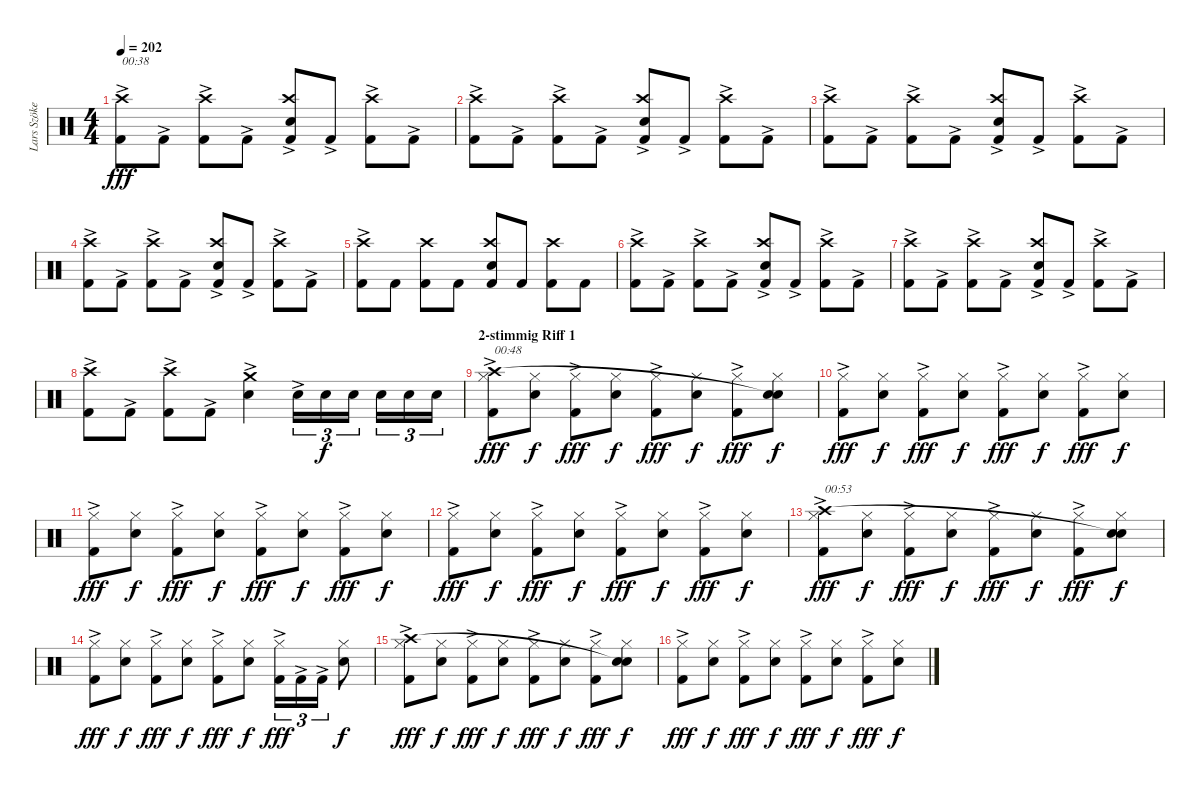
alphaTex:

\track ("Lars Szöke" "Lars Szöke") {instrument percussion}
\staff {score}
\articulation defaults
\ts (4 4)
\tempo 202
\clef neutral
\ks c
("Kick (hit) 2"{ac} "Crash high (hit)"{ac}).8{txt "00:38" dy fff} "Kick (hit) 2"{ac}.8 ("Kick (hit) 2"{ac} "Crash high (hit)").8 "Kick (hit) 2"{ac}.8 ("Kick (hit) 2"{ac} "Snare (hit) 2" "Crash high (hit)").8 "Kick (hit) 2"{ac}.8 ("Kick (hit) 2"{ac} "Crash high (hit)").8 "Kick (hit) 2"{ac}.8 |
("Kick (hit) 2"{ac} "Crash high (hit)").8 "Kick (hit) 2"{ac}.8 ("Kick (hit) 2"{ac} "Crash high (hit)").8 "Kick (hit) 2"{ac}.8 ("Kick (hit) 2"{ac} "Snare (hit) 2" "Crash high (hit)").8 "Kick (hit) 2"{ac}.8 ("Kick (hit) 2"{ac} "Crash high (hit)").8 "Kick (hit) 2"{ac}.8 |
("Kick (hit) 2"{ac} "Crash high (hit)").8 "Kick (hit) 2"{ac}.8 ("Kick (hit) 2"{ac} "Crash high (hit)").8 "Kick (hit) 2"{ac}.8 ("Kick (hit) 2"{ac} "Snare (hit) 2" "Crash high (hit)").8 "Kick (hit) 2"{ac}.8 ("Kick (hit) 2"{ac} "Crash high (hit)").8 "Kick (hit) 2"{ac}.8 |
("Kick (hit) 2"{ac} "Crash high (hit)").8 "Kick (hit) 2"{ac}.8 ("Kick (hit) 2"{ac} "Crash high (hit)").8 "Kick (hit) 2"{ac}.8 ("Kick (hit) 2"{ac} "Snare (hit) 2" "Crash high (hit)").8 "Kick (hit) 2"{ac}.8 ("Kick (hit) 2"{ac} "Crash high (hit)").8 "Kick (hit) 2"{ac}.8 |
("Kick (hit) 2" "Crash high (hit)"{ac}).8 "Kick (hit) 2".8 ("Kick (hit) 2" "Crash high (hit)").8 "Kick (hit) 2".8 ("Kick (hit) 2" "Snare (hit) 2" "Crash high (hit)").8 "Kick (hit) 2".8 ("Kick (hit) 2" "Crash high (hit)").8 "Kick (hit) 2".8 |
("Kick (hit) 2"{ac} "Crash high (hit)").8 "Kick (hit) 2"{ac}.8 ("Kick (hit) 2"{ac} "Crash high (hit)").8 "Kick (hit) 2"{ac}.8 ("Kick (hit) 2"{ac} "Snare (hit) 2" "Crash high (hit)").8 "Kick (hit) 2"{ac}.8 ("Kick (hit) 2"{ac} "Crash high (hit)").8 "Kick (hit) 2"{ac}.8 |
("Kick (hit) 2"{ac} "Crash high (hit)").8 "Kick (hit) 2"{ac}.8 ("Kick (hit) 2"{ac} "Crash high (hit)").8 "Kick (hit) 2"{ac}.8 ("Kick (hit) 2"{ac} "Snare (hit) 2" "Crash high (hit)").8 "Kick (hit) 2"{ac}.8 ("Kick (hit) 2"{ac} "Crash high (hit)").8 "Kick (hit) 2"{ac}.8 |
("Kick (hit) 2"{ac} "Crash high (hit)").8 "Kick (hit) 2"{ac}.8 ("Kick (hit) 2"{ac} "Crash high (hit)").8 "Kick (hit) 2"{ac}.8 ("Snare (hit) 2" "Crash medium (hit)"{ac}).4 "Snare (hit) 2"{ac}.16{tu (3 2)} "Snare (hit) 2".16{tu (3 2) dy f} "Snare (hit) 2".16{tu (3 2)} "Snare (hit) 2".16{tu (3 2)} "Snare (hit) 2".16{tu (3 2)} "Snare (hit) 2".16{tu (3 2)} |
\section ("" "2-stimmig Riff 1")
("Kick (hit) 2"{ac} "Hi-Hat (closed)" "Crash high (hit)"{ac}).8{txt "00:48" dy fff} ("Snare (hit) 2" "Hi-Hat (closed)").8{dy f} ("Kick (hit) 2"{ac} "Hi-Hat (closed)").8{dy fff} ("Snare (hit) 2" "Hi-Hat (closed)").8{dy f} ("Kick (hit) 2"{ac} "Hi-Hat (closed)").8{dy fff} ("Snare (hit) 2" "Hi-Hat (closed)").8{dy f} ("Kick (hit) 2"{ac} "Hi-Hat (closed)").8{dy fff} ("Snare (hit) 2" "Hi-Hat (closed)" "Snare (hit)"{t}).8{dy f} |
("Kick (hit) 2"{ac} "Hi-Hat (closed)").8{dy fff} ("Snare (hit) 2" "Hi-Hat (closed)").8{dy f} ("Kick (hit) 2"{ac} "Hi-Hat (closed)").8{dy fff} ("Snare (hit) 2" "Hi-Hat (closed)").8{dy f} ("Kick (hit) 2"{ac} "Hi-Hat (closed)").8{dy fff} ("Snare (hit) 2" "Hi-Hat (closed)").8{dy f} ("Kick (hit) 2"{ac} "Hi-Hat (closed)").8{dy fff} ("Snare (hit) 2" "Hi-Hat (closed)").8{dy f} |
("Kick (hit) 2"{ac} "Hi-Hat (closed)").8{dy fff} ("Snare (hit) 2" "Hi-Hat (closed)").8{dy f} ("Kick (hit) 2"{ac} "Hi-Hat (closed)").8{dy fff} ("Snare (hit) 2" "Hi-Hat (closed)").8{dy f} ("Kick (hit) 2"{ac} "Hi-Hat (closed)").8{dy fff} ("Snare (hit) 2" "Hi-Hat (closed)").8{dy f} ("Kick (hit) 2"{ac} "Hi-Hat (closed)").8{dy fff} ("Snare (hit) 2" "Hi-Hat (closed)").8{dy f} |
("Kick (hit) 2"{ac} "Hi-Hat (closed)").8{dy fff} ("Snare (hit) 2" "Hi-Hat (closed)").8{dy f} ("Kick (hit) 2"{ac} "Hi-Hat (closed)").8{dy fff} ("Snare (hit) 2" "Hi-Hat (closed)").8{dy f} ("Kick (hit) 2"{ac} "Hi-Hat (closed)").8{dy fff} ("Snare (hit) 2" "Hi-Hat (closed)").8{dy f} ("Kick (hit) 2"{ac} "Hi-Hat (closed)").8{dy fff} ("Snare (hit) 2" "Hi-Hat (closed)").8{dy f} |
("Kick (hit) 2"{ac} "Hi-Hat (closed)" "Crash high (hit)"{ac}).8{txt "00:53" dy fff} ("Snare (hit) 2" "Hi-Hat (closed)").8{dy f} ("Kick (hit) 2"{ac} "Hi-Hat (closed)").8{dy fff} ("Snare (hit) 2" "Hi-Hat (closed)").8{dy f} ("Kick (hit) 2"{ac} "Hi-Hat (closed)").8{dy fff} ("Snare (hit) 2" "Hi-Hat (closed)").8{dy f} ("Kick (hit) 2"{ac} "Hi-Hat (closed)").8{dy fff} ("Snare (hit) 2" "Hi-Hat (closed)" "Snare (hit)"{t}).8{dy f} |
("Kick (hit) 2"{ac} "Hi-Hat (closed)").8{dy fff} ("Snare (hit) 2" "Hi-Hat (closed)").8{dy f} ("Kick (hit) 2"{ac} "Hi-Hat (closed)").8{dy fff} ("Snare (hit) 2" "Hi-Hat (closed)").8{dy f} ("Kick (hit) 2"{ac} "Hi-Hat (closed)").8{dy fff} ("Snare (hit) 2" "Hi-Hat (closed)").8{dy f} ("Kick (hit) 2"{ac} "Hi-Hat (closed)").16{tu (3 2) dy fff} "Kick (hit) 2"{ac}.16{tu (3 2)} "Kick (hit) 2"{ac}.16{tu (3 2)} ("Snare (hit) 2" "Hi-Hat (closed)").8{dy f} |
("Kick (hit) 2"{ac} "Hi-Hat (closed)" "Crash high (hit)"{ac}).8{dy fff} ("Snare (hit) 2" "Hi-Hat (closed)").8{dy f} ("Kick (hit) 2"{ac} "Hi-Hat (closed)").8{dy fff} ("Snare (hit) 2" "Hi-Hat (closed)").8{dy f} ("Kick (hit) 2"{ac} "Hi-Hat (closed)").8{dy fff} ("Snare (hit) 2" "Hi-Hat (closed)").8{dy f} ("Kick (hit) 2"{ac} "Hi-Hat (closed)").8{dy fff} ("Snare (hit) 2" "Hi-Hat (closed)" "Snare (hit)"{t}).8{dy f} |
("Kick (hit) 2"{ac} "Hi-Hat (closed)").8{dy fff} ("Snare (hit) 2" "Hi-Hat (closed)").8{dy f} ("Kick (hit) 2"{ac} "Hi-Hat (closed)").8{dy fff} ("Snare (hit) 2" "Hi-Hat (closed)").8{dy f} ("Kick (hit) 2"{ac} "Hi-Hat (closed)").8{dy fff} ("Snare (hit) 2" "Hi-Hat (closed)").8{dy f} ("Kick (hit) 2"{ac} "Hi-Hat (closed)").8{dy fff} ("Snare (hit) 2" "Hi-Hat (closed)").8{dy f}
